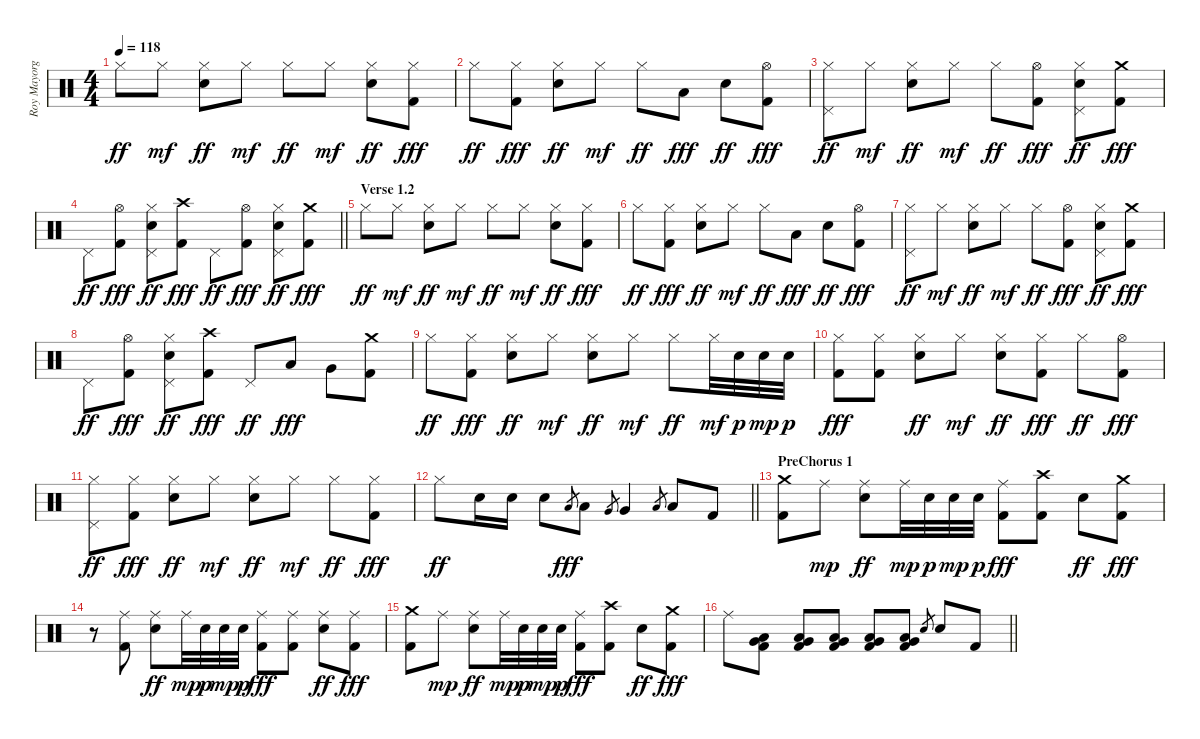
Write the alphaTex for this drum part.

\track ("Roy Mayorga" "Roy Mayorg") {instrument percussion}
\staff {score}
\articulation defaults
\ts (4 4)
\tempo 118
\clef neutral
\ks c "Hi-Hat (closed)".8{dy ff} "Hi-Hat (closed)".8{dy mf}
("Hi-Hat (closed)" "Electric Snare (hit)").8{dy ff} "Hi-Hat (closed)".8{dy mf} "Hi-Hat (closed)".8{dy ff} "Hi-Hat (closed)".8{dy mf} ("Hi-Hat (closed)" "Electric Snare (hit)").8{dy ff} ("Hi-Hat (closed)" "Kick (hit) 2").8{dy fff} |
"Hi-Hat (closed)".8{dy ff} ("Hi-Hat (closed)" "Kick (hit) 2").8{dy fff} ("Hi-Hat (closed)" "Electric Snare (hit)").8{dy ff} "Hi-Hat (closed)".8{dy mf} "Hi-Hat (closed)".8{dy ff} "Low Tom (hit)".8{dy fff} "Electric Snare (hit)".8{dy ff} ("Hi-Hat (open)" "Kick (hit) 2").8{dy fff} |
("Hi-Hat (closed)" "Pedal Hi-Hat (hit)").8{dy ff} "Hi-Hat (closed)".8{dy mf} ("Hi-Hat (closed)" "Electric Snare (hit)").8{dy ff} "Hi-Hat (closed)".8{dy mf} "Hi-Hat (closed)".8{dy ff} ("Hi-Hat (open)" "Kick (hit) 2").8{dy fff} ("Hi-Hat (closed)" "Electric Snare (hit)" "Pedal Hi-Hat (hit)").8{dy ff} ("Crash medium (hit)" "Kick (hit) 2").8{dy fff} |
\barLineRight lightlight "Pedal Hi-Hat (hit)".8{dy ff}
("Hi-Hat (open)" "Kick (hit) 2").8{dy fff} ("Hi-Hat (closed)" "Electric Snare (hit)" "Pedal Hi-Hat (hit)").8{dy ff} ("Crash high (hit)" "Kick (hit) 2").8{dy fff} "Pedal Hi-Hat (hit)".8{dy ff} ("Hi-Hat (open)" "Kick (hit) 2").8{dy fff} ("Hi-Hat (closed)" "Electric Snare (hit)" "Pedal Hi-Hat (hit)").8{dy ff} ("Crash medium (hit)" "Kick (hit) 2").8{dy fff} |
\section ("" "Verse 1.2")
"Hi-Hat (closed)".8{dy ff} "Hi-Hat (closed)".8{dy mf} ("Hi-Hat (closed)" "Electric Snare (hit)").8{dy ff} "Hi-Hat (closed)".8{dy mf} "Hi-Hat (closed)".8{dy ff} "Hi-Hat (closed)".8{dy mf} ("Hi-Hat (closed)" "Electric Snare (hit)").8{dy ff} ("Hi-Hat (closed)" "Kick (hit) 2").8{dy fff} |
"Hi-Hat (closed)".8{dy ff} ("Hi-Hat (closed)" "Kick (hit) 2").8{dy fff} ("Hi-Hat (closed)" "Electric Snare (hit)").8{dy ff} "Hi-Hat (closed)".8{dy mf} "Hi-Hat (closed)".8{dy ff} "Low Tom (hit)".8{dy fff} "Electric Snare (hit)".8{dy ff} ("Hi-Hat (open)" "Kick (hit) 2").8{dy fff} |
("Hi-Hat (closed)" "Pedal Hi-Hat (hit)").8{dy ff} "Hi-Hat (closed)".8{dy mf} ("Hi-Hat (closed)" "Electric Snare (hit)").8{dy ff} "Hi-Hat (closed)".8{dy mf} "Hi-Hat (closed)".8{dy ff} ("Hi-Hat (open)" "Kick (hit) 2").8{dy fff} ("Hi-Hat (closed)" "Electric Snare (hit)" "Pedal Hi-Hat (hit)").8{dy ff} ("Crash medium (hit)" "Kick (hit) 2").8{dy fff} |
"Pedal Hi-Hat (hit)".8{dy ff} ("Hi-Hat (open)" "Kick (hit) 2").8{dy fff} ("Hi-Hat (closed)" "Electric Snare (hit)" "Pedal Hi-Hat (hit)").8{dy ff} ("Crash high (hit)" "Kick (hit) 2").8{dy fff} "Pedal Hi-Hat (hit)".8{dy ff} "Low Tom (hit)".8{dy fff} "Very Low Tom (hit)".8 ("Crash medium (hit)" "Kick (hit) 2").8 |
"Hi-Hat (closed)".8{dy ff} ("Hi-Hat (closed)" "Kick (hit) 2").8{dy fff} ("Hi-Hat (closed)" "Electric Snare (hit)").8{dy ff} "Hi-Hat (closed)".8{dy mf} ("Hi-Hat (closed)" "Electric Snare (hit)").8{dy ff} "Hi-Hat (closed)".8{dy mf} "Hi-Hat (closed)".8{dy ff} "Hi-Hat (closed)".32{dy mf} "Electric Snare (hit)".32{dy p} "Electric Snare (hit)".32{dy mp} "Electric Snare (hit)".32{dy p} |
("Hi-Hat (closed)" "Kick (hit) 2").8{dy fff} ("Hi-Hat (closed)" "Kick (hit) 2").8 ("Hi-Hat (closed)" "Electric Snare (hit)").8{dy ff} "Hi-Hat (closed)".8{dy mf} ("Hi-Hat (closed)" "Electric Snare (hit)").8{dy ff} ("Hi-Hat (closed)" "Kick (hit) 2").8{dy fff} "Hi-Hat (closed)".8{dy ff} ("Hi-Hat (open)" "Kick (hit) 2").8{dy fff} |
("Hi-Hat (closed)" "Pedal Hi-Hat (hit)").8{dy ff} ("Hi-Hat (closed)" "Kick (hit) 2").8{dy fff} ("Hi-Hat (closed)" "Electric Snare (hit)").8{dy ff} "Hi-Hat (closed)".8{dy mf} ("Hi-Hat (closed)" "Electric Snare (hit)").8{dy ff} "Hi-Hat (closed)".8{dy mf} "Hi-Hat (closed)".8{dy ff} ("Hi-Hat (closed)" "Kick (hit) 2").8{dy fff} |
\barLineRight lightlight "Hi-Hat (closed)".8{dy ff} "Electric Snare (hit)".16 "Electric Snare (hit)".16 "Electric Snare (hit)".8 "Low Tom (hit)".8{gr dy fff} "Low Tom (hit)".8 "Very Low Tom (hit)".8{gr} "Very Low Tom (hit)".4 "Low Floor Tom (hit)".8{gr} "Low Floor Tom (hit)".8 "Kick (hit) 2".8
|
\section ("" "PreChorus 1")
("Crash medium (hit)" "Kick (hit) 2").8 "Ride (middle)".8{dy mp} ("Ride (middle)" "Electric Snare (hit)").8{dy ff} "Ride (middle)".32{dy mp} "Electric Snare (hit)".32{dy p} "Electric Snare (hit)".32{dy mp} "Electric Snare (hit)".32{dy p} ("Ride (middle)" "Kick (hit) 2").8{dy fff} ("Crash high (hit)" "Kick (hit) 2").8 "Electric Snare (hit)".8{dy ff} ("Crash medium (hit)" "Kick (hit) 2").8{dy fff} |
r.8 ("Ride (middle)" "Kick (hit) 2").8 ("Ride (middle)" "Electric Snare (hit)").8{dy ff} "Ride (middle)".32{dy mp} "Electric Snare (hit)".32{dy p} "Electric Snare (hit)".32{dy mp} "Electric Snare (hit)".32{dy p} ("Ride (middle)" "Kick (hit) 2").8{dy fff} ("Ride (middle)" "Kick (hit) 2").8 ("Ride (middle)" "Electric Snare (hit)").8{dy ff} ("Ride (middle)" "Kick (hit) 2").8{dy fff} |
("Crash medium (hit)" "Kick (hit) 2").8 "Ride (middle)".8{dy mp} ("Ride (middle)" "Electric Snare (hit)").8{dy ff} "Ride (middle)".32{dy mp} "Electric Snare (hit)".32{dy p} "Electric Snare (hit)".32{dy mp} "Electric Snare (hit)".32{dy p} ("Ride (middle)" "Kick (hit) 2").8{dy fff} ("Crash high (hit)" "Kick (hit) 2").8 "Electric Snare (hit)".8{dy ff} ("Crash medium (hit)" "Kick (hit) 2").8{dy fff} |
\barLineRight lightlight "Ride (middle)".8
("Very Low Tom (hit)" "Low Floor Tom (hit)" "Kick (hit) 2").8 ("Very Low Tom (hit)" "Low Floor Tom (hit)" "Kick (hit) 2").8 ("Very Low Tom (hit)" "Low Floor Tom (hit)" "Kick (hit) 2").8 ("Very Low Tom (hit)" "Low Floor Tom (hit)" "Kick (hit) 2").8 ("Very Low Tom (hit)" "Low Floor Tom (hit)" "Kick (hit) 2").8 "Electric Snare (hit)".8{gr} "Electric Snare (hit)".8 "Kick (hit) 2".8
